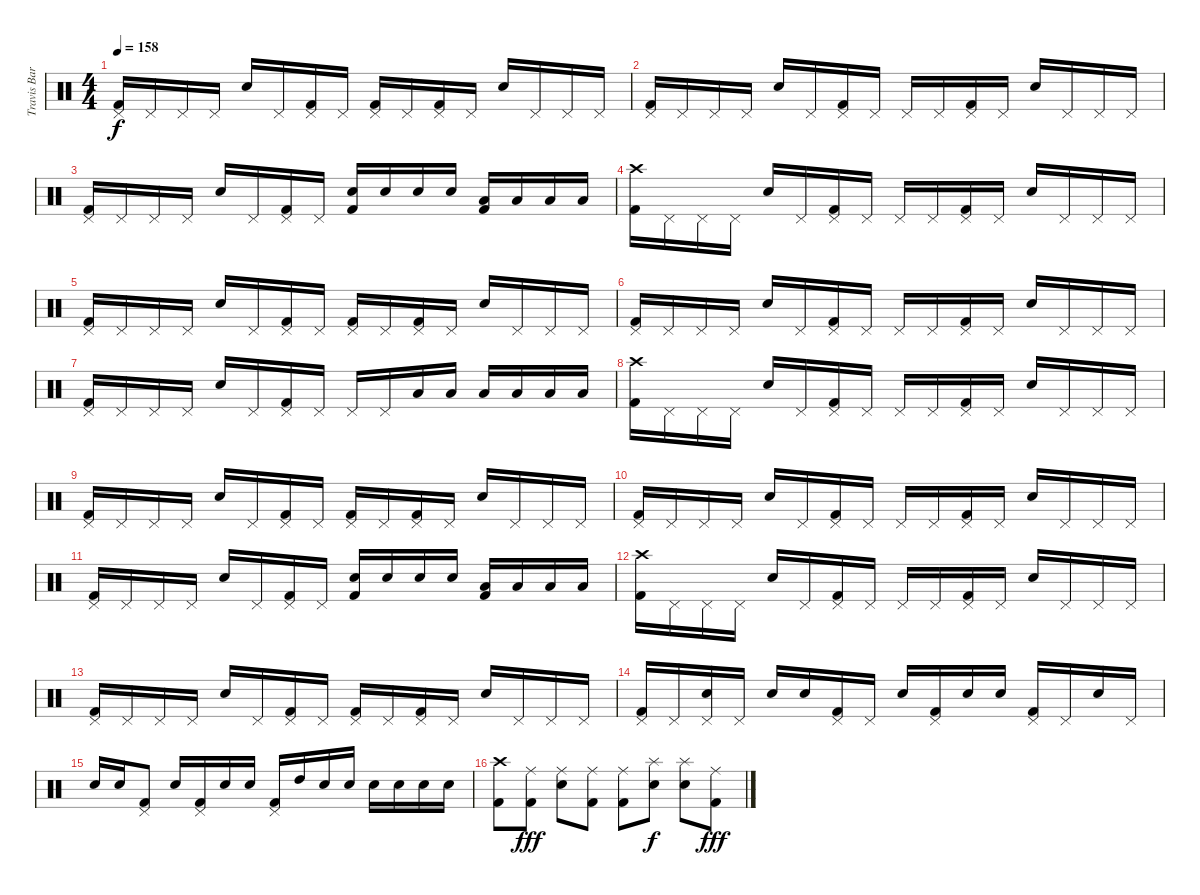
\track ("Travis Barker - Drums" "Travis Bar") {instrument percussion}
\staff {score}
\articulation defaults
\ts (4 4)
\tempo 158
\clef neutral
\ks c
("Pedal Hi-Hat (hit)" "Kick (hit) 2").16{dy f} "Pedal Hi-Hat (hit)".16 "Pedal Hi-Hat (hit)".16 "Pedal Hi-Hat (hit)".16 "Electric Snare (hit)".16 "Pedal Hi-Hat (hit)".16 ("Pedal Hi-Hat (hit)" "Kick (hit) 2").16 "Pedal Hi-Hat (hit)".16 ("Pedal Hi-Hat (hit)" "Kick (hit) 2").16 "Pedal Hi-Hat (hit)".16 ("Pedal Hi-Hat (hit)" "Kick (hit) 2").16 "Pedal Hi-Hat (hit)".16 "Electric Snare (hit)".16 "Pedal Hi-Hat (hit)".16 "Pedal Hi-Hat (hit)".16 "Pedal Hi-Hat (hit)".16 |
("Pedal Hi-Hat (hit)" "Kick (hit) 2").16 "Pedal Hi-Hat (hit)".16 "Pedal Hi-Hat (hit)".16 "Pedal Hi-Hat (hit)".16 "Electric Snare (hit)".16 "Pedal Hi-Hat (hit)".16 ("Pedal Hi-Hat (hit)" "Kick (hit) 2").16 "Pedal Hi-Hat (hit)".16 "Pedal Hi-Hat (hit)".16 "Pedal Hi-Hat (hit)".16 ("Pedal Hi-Hat (hit)" "Kick (hit) 2").16 "Pedal Hi-Hat (hit)".16 "Electric Snare (hit)".16 "Pedal Hi-Hat (hit)".16 "Pedal Hi-Hat (hit)".16 "Pedal Hi-Hat (hit)".16 |
("Pedal Hi-Hat (hit)" "Kick (hit) 2").16 "Pedal Hi-Hat (hit)".16 "Pedal Hi-Hat (hit)".16 "Pedal Hi-Hat (hit)".16 "Electric Snare (hit)".16 "Pedal Hi-Hat (hit)".16 ("Pedal Hi-Hat (hit)" "Kick (hit) 2").16 "Pedal Hi-Hat (hit)".16 ("Electric Snare (hit)" "Kick (hit) 2").16 "Electric Snare (hit)".16 "Electric Snare (hit)".16 "Electric Snare (hit)".16 ("Low Tom (hit)" "Kick (hit) 2").16 "Low Tom (hit)".16 "Low Tom (hit)".16 "Low Tom (hit)".16 |
("Crash high (hit)" "Kick (hit) 2").16 "Pedal Hi-Hat (hit)".16 "Pedal Hi-Hat (hit)".16 "Pedal Hi-Hat (hit)".16 "Electric Snare (hit)".16 "Pedal Hi-Hat (hit)".16 ("Pedal Hi-Hat (hit)" "Kick (hit) 2").16 "Pedal Hi-Hat (hit)".16 "Pedal Hi-Hat (hit)".16 "Pedal Hi-Hat (hit)".16 ("Pedal Hi-Hat (hit)" "Kick (hit) 2").16 "Pedal Hi-Hat (hit)".16 "Electric Snare (hit)".16 "Pedal Hi-Hat (hit)".16 "Pedal Hi-Hat (hit)".16 "Pedal Hi-Hat (hit)".16 |
("Pedal Hi-Hat (hit)" "Kick (hit) 2").16 "Pedal Hi-Hat (hit)".16 "Pedal Hi-Hat (hit)".16 "Pedal Hi-Hat (hit)".16 "Electric Snare (hit)".16 "Pedal Hi-Hat (hit)".16 ("Pedal Hi-Hat (hit)" "Kick (hit) 2").16 "Pedal Hi-Hat (hit)".16 ("Pedal Hi-Hat (hit)" "Kick (hit) 2").16 "Pedal Hi-Hat (hit)".16 ("Pedal Hi-Hat (hit)" "Kick (hit) 2").16 "Pedal Hi-Hat (hit)".16 "Electric Snare (hit)".16 "Pedal Hi-Hat (hit)".16 "Pedal Hi-Hat (hit)".16 "Pedal Hi-Hat (hit)".16 |
("Pedal Hi-Hat (hit)" "Kick (hit) 2").16 "Pedal Hi-Hat (hit)".16 "Pedal Hi-Hat (hit)".16 "Pedal Hi-Hat (hit)".16 "Electric Snare (hit)".16 "Pedal Hi-Hat (hit)".16 ("Pedal Hi-Hat (hit)" "Kick (hit) 2").16 "Pedal Hi-Hat (hit)".16 "Pedal Hi-Hat (hit)".16 "Pedal Hi-Hat (hit)".16 ("Pedal Hi-Hat (hit)" "Kick (hit) 2").16 "Pedal Hi-Hat (hit)".16 "Electric Snare (hit)".16 "Pedal Hi-Hat (hit)".16 "Pedal Hi-Hat (hit)".16 "Pedal Hi-Hat (hit)".16 |
("Pedal Hi-Hat (hit)" "Kick (hit) 2").16 "Pedal Hi-Hat (hit)".16 "Pedal Hi-Hat (hit)".16 "Pedal Hi-Hat (hit)".16 "Electric Snare (hit)".16 "Pedal Hi-Hat (hit)".16 ("Pedal Hi-Hat (hit)" "Kick (hit) 2").16 "Pedal Hi-Hat (hit)".16 "Pedal Hi-Hat (hit)".16 "Pedal Hi-Hat (hit)".16 "Low Tom (hit)".16 "Low Tom (hit)".16 "Low Tom (hit)".16 "Low Tom (hit)".16 "Low Tom (hit)".16 "Low Tom (hit)".16 |
("Crash high (hit)" "Kick (hit) 2").16 "Pedal Hi-Hat (hit)".16 "Pedal Hi-Hat (hit)".16 "Pedal Hi-Hat (hit)".16 "Electric Snare (hit)".16 "Pedal Hi-Hat (hit)".16 ("Pedal Hi-Hat (hit)" "Kick (hit) 2").16 "Pedal Hi-Hat (hit)".16 "Pedal Hi-Hat (hit)".16 "Pedal Hi-Hat (hit)".16 ("Pedal Hi-Hat (hit)" "Kick (hit) 2").16 "Pedal Hi-Hat (hit)".16 "Electric Snare (hit)".16 "Pedal Hi-Hat (hit)".16 "Pedal Hi-Hat (hit)".16 "Pedal Hi-Hat (hit)".16 |
("Pedal Hi-Hat (hit)" "Kick (hit) 2").16 "Pedal Hi-Hat (hit)".16 "Pedal Hi-Hat (hit)".16 "Pedal Hi-Hat (hit)".16 "Electric Snare (hit)".16 "Pedal Hi-Hat (hit)".16 ("Pedal Hi-Hat (hit)" "Kick (hit) 2").16 "Pedal Hi-Hat (hit)".16 ("Pedal Hi-Hat (hit)" "Kick (hit) 2").16 "Pedal Hi-Hat (hit)".16 ("Pedal Hi-Hat (hit)" "Kick (hit) 2").16 "Pedal Hi-Hat (hit)".16 "Electric Snare (hit)".16 "Pedal Hi-Hat (hit)".16 "Pedal Hi-Hat (hit)".16 "Pedal Hi-Hat (hit)".16 |
("Pedal Hi-Hat (hit)" "Kick (hit) 2").16 "Pedal Hi-Hat (hit)".16 "Pedal Hi-Hat (hit)".16 "Pedal Hi-Hat (hit)".16 "Electric Snare (hit)".16 "Pedal Hi-Hat (hit)".16 ("Pedal Hi-Hat (hit)" "Kick (hit) 2").16 "Pedal Hi-Hat (hit)".16 "Pedal Hi-Hat (hit)".16 "Pedal Hi-Hat (hit)".16 ("Pedal Hi-Hat (hit)" "Kick (hit) 2").16 "Pedal Hi-Hat (hit)".16 "Electric Snare (hit)".16 "Pedal Hi-Hat (hit)".16 "Pedal Hi-Hat (hit)".16 "Pedal Hi-Hat (hit)".16 |
("Pedal Hi-Hat (hit)" "Kick (hit) 2").16 "Pedal Hi-Hat (hit)".16 "Pedal Hi-Hat (hit)".16 "Pedal Hi-Hat (hit)".16 "Electric Snare (hit)".16 "Pedal Hi-Hat (hit)".16 ("Pedal Hi-Hat (hit)" "Kick (hit) 2").16 "Pedal Hi-Hat (hit)".16 ("Electric Snare (hit)" "Kick (hit) 2").16 "Electric Snare (hit)".16 "Electric Snare (hit)".16 "Electric Snare (hit)".16 ("Low Tom (hit)" "Kick (hit) 2").16 "Low Tom (hit)".16 "Low Tom (hit)".16 "Low Tom (hit)".16 |
("Crash high (hit)" "Kick (hit) 2").16 "Pedal Hi-Hat (hit)".16 "Pedal Hi-Hat (hit)".16 "Pedal Hi-Hat (hit)".16 "Electric Snare (hit)".16 "Pedal Hi-Hat (hit)".16 ("Pedal Hi-Hat (hit)" "Kick (hit) 2").16 "Pedal Hi-Hat (hit)".16 "Pedal Hi-Hat (hit)".16 "Pedal Hi-Hat (hit)".16 ("Pedal Hi-Hat (hit)" "Kick (hit) 2").16 "Pedal Hi-Hat (hit)".16 "Electric Snare (hit)".16 "Pedal Hi-Hat (hit)".16 "Pedal Hi-Hat (hit)".16 "Pedal Hi-Hat (hit)".16 |
("Pedal Hi-Hat (hit)" "Kick (hit) 2").16 "Pedal Hi-Hat (hit)".16 "Pedal Hi-Hat (hit)".16 "Pedal Hi-Hat (hit)".16 "Electric Snare (hit)".16 "Pedal Hi-Hat (hit)".16 ("Pedal Hi-Hat (hit)" "Kick (hit) 2").16 "Pedal Hi-Hat (hit)".16 ("Pedal Hi-Hat (hit)" "Kick (hit) 2").16 "Pedal Hi-Hat (hit)".16 ("Pedal Hi-Hat (hit)" "Kick (hit) 2").16 "Pedal Hi-Hat (hit)".16 "Electric Snare (hit)".16 "Pedal Hi-Hat (hit)".16 "Pedal Hi-Hat (hit)".16 "Pedal Hi-Hat (hit)".16 |
("Pedal Hi-Hat (hit)" "Kick (hit) 2").16 "Pedal Hi-Hat (hit)".16 ("Pedal Hi-Hat (hit)" "Electric Snare (hit)").16 "Pedal Hi-Hat (hit)".16 "Electric Snare (hit)".16 "Electric Snare (hit)".16 ("Pedal Hi-Hat (hit)" "Kick (hit) 2").16 "Pedal Hi-Hat (hit)".16 "Electric Snare (hit)".16 ("Pedal Hi-Hat (hit)" "Kick (hit) 2").16 "Electric Snare (hit)".16 "Electric Snare (hit)".16 ("Pedal Hi-Hat (hit)" "Kick (hit) 2").16 "Pedal Hi-Hat (hit)".16 "Electric Snare (hit)".16 "Pedal Hi-Hat (hit)".16 |
"Electric Snare (hit)".16 "Electric Snare (hit)".16 ("Pedal Hi-Hat (hit)" "Kick (hit) 2").8 "Electric Snare (hit)".16 ("Pedal Hi-Hat (hit)" "Kick (hit) 2").16 "Electric Snare (hit)".16 "Electric Snare (hit)".16 ("Pedal Hi-Hat (hit)" "Kick (hit) 2").16 "High Tom (hit)".16 "Electric Snare (hit)".16 "Electric Snare (hit)".16 "Electric Snare (hit)".16 "Electric Snare (hit)".16 "Electric Snare (hit)".16 "Electric Snare (hit)".16 |
("Crash high (hit)" "Kick (hit) 2").8 ("Ride (middle)" "Kick (hit) 2").8{dy fff} ("Ride (middle)" "Electric Snare (hit)").8 ("Ride (middle)" "Kick (hit) 2").8 ("Ride (middle)" "Kick (hit) 2").8 ("Splash (hit)" "Electric Snare (hit)").8{dy f} ("Splash (hit)" "Electric Snare (hit)").8 ("Ride (middle)" "Kick (hit) 2").8{dy fff}
